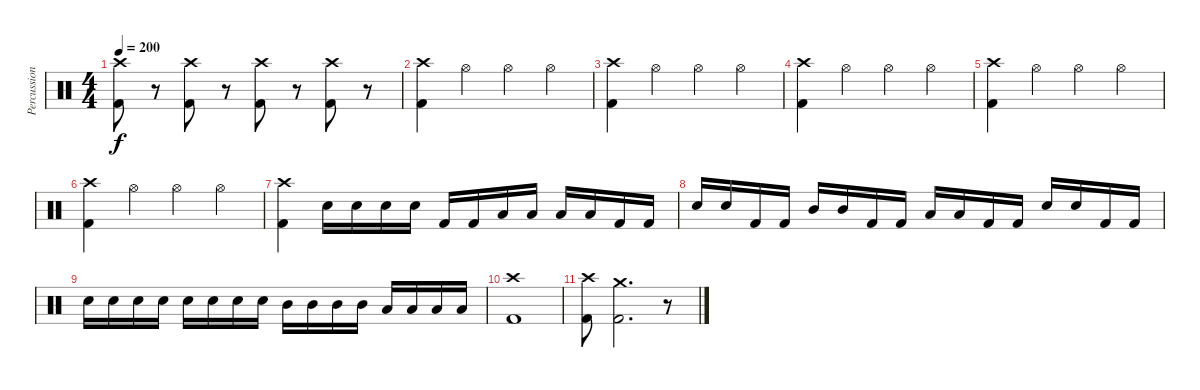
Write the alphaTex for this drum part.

\track ("Percussion" "Percussion") {instrument percussion}
\staff {score}
\articulation defaults
\ts (4 4)
\tempo 200
\clef neutral
\ks c
("Crash high (hit)" "Kick (hit) 2").8{dy f volume 16} r.8{volume 0} ("Crash high (hit)" "Kick (hit) 2").8{volume 16} r.8{volume 0} ("Crash high (hit)" "Kick (hit) 2").8{volume 16} r.8{volume 0} ("Crash high (hit)" "Kick (hit) 2").8{volume 16} r.8{volume 0} |
("Crash high (hit)" "Kick (hit) 2").4{volume 16} "Hi-Hat (open)".4 "Hi-Hat (open)".4 "Hi-Hat (open)".4 |
("Crash high (hit)" "Kick (hit) 2").4 "Hi-Hat (open)".4 "Hi-Hat (open)".4 "Hi-Hat (open)".4 |
("Crash high (hit)" "Kick (hit) 2").4 "Hi-Hat (open)".4 "Hi-Hat (open)".4 "Hi-Hat (open)".4 |
("Crash high (hit)" "Kick (hit) 2").4 "Hi-Hat (open)".4 "Hi-Hat (open)".4 "Hi-Hat (open)".4 |
("Crash high (hit)" "Kick (hit) 2").4 "Hi-Hat (open)".4 "Hi-Hat (open)".4 "Hi-Hat (open)".4 |
("Crash high (hit)" "Kick (hit) 2").4 "Electric Snare (hit)".16 "Electric Snare (hit)".16 "Electric Snare (hit)".16 "Electric Snare (hit)".16 "Kick (hit) 2".16 "Kick (hit) 2".16 "Low Tom (hit)".16 "Low Tom (hit)".16 "Low Tom (hit)".16 "Low Tom (hit)".16 "Kick (hit) 2".16 "Kick (hit) 2".16 |
"Electric Snare (hit)".16 "Electric Snare (hit)".16 "Kick (hit) 2".16 "Kick (hit) 2".16 "Mid Tom (hit)".16 "Mid Tom (hit)".16 "Kick (hit) 2".16 "Kick (hit) 2".16 "Low Tom (hit)".16 "Low Tom (hit)".16 "Kick (hit) 2".16 "Kick (hit) 2".16 "Electric Snare (hit)".16 "Electric Snare (hit)".16 "Kick (hit) 2".16 "Kick (hit) 2".16 |
"Electric Snare (hit)".16 "Electric Snare (hit)".16 "Electric Snare (hit)".16 "Electric Snare (hit)".16 "Electric Snare (hit)".16 "Electric Snare (hit)".16 "Electric Snare (hit)".16 "Electric Snare (hit)".16 "Mid Tom (hit)".16 "Mid Tom (hit)".16 "Mid Tom (hit)".16 "Mid Tom (hit)".16 "Low Tom (hit)".16 "Low Tom (hit)".16 "Low Tom (hit)".16 "Low Tom (hit)".16 |
("Crash high (hit)" "Kick (hit) 2").1 |
("Crash high (hit)" "Kick (hit) 2").8 ("Crash medium (hit)" "Kick (hit) 2").2{d} r.8
